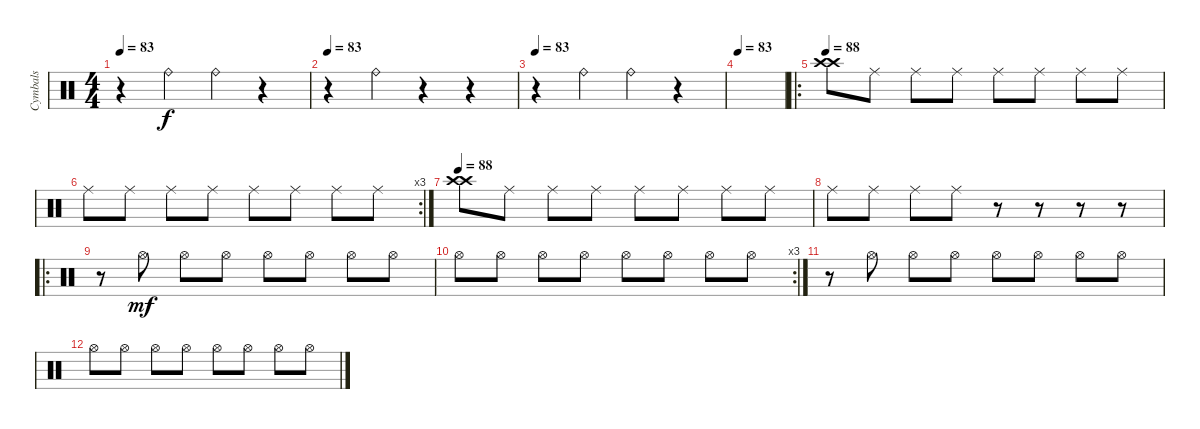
\track ("Cymbals" "Cymbals") {instrument percussion}
\staff {score}
\articulation defaults
\ts (4 4)
\tempo 83
\clef neutral
\ks c
r.4{dy f} "Ride (bell)".4 "Ride (bell)".4 r.4 |
\tempo 83
r.4 "Ride (bell)".4 r.4 r.4 |
\tempo 83
r.4 "Ride (bell)".4 "Ride (bell)".4 r.4 |
\tempo 83
|
\ro
\tempo 88
("Crash high (hit)" "Crash high (hit)").8 "Ride (middle)".8 "Ride (middle)".8 "Ride (middle)".8 "Ride (middle)".8 "Ride (middle)".8 "Ride (middle)".8 "Ride (middle)".8 |
\rc 3 "Ride (middle)".8 "Ride (middle)".8 "Ride (middle)".8 "Ride (middle)".8 "Ride (middle)".8 "Ride (middle)".8 "Ride (middle)".8 "Ride (middle)".8
|
\tempo 88
("Crash high (hit)" "Crash high (hit)").8 "Ride (middle)".8 "Ride (middle)".8 "Ride (middle)".8 "Ride (middle)".8 "Ride (middle)".8 "Ride (middle)".8 "Ride (middle)".8 |
"Ride (middle)".8 "Ride (middle)".8 "Ride (middle)".8 "Ride (middle)".8 r.8 r.8 r.8 r.8 |
\ro
r.8 "Hi-Hat (open)".8{dy mf} "Hi-Hat (open)".8 "Hi-Hat (open)".8 "Hi-Hat (open)".8 "Hi-Hat (open)".8 "Hi-Hat (open)".8 "Hi-Hat (open)".8 |
\rc 3 "Hi-Hat (open)".8 "Hi-Hat (open)".8 "Hi-Hat (open)".8 "Hi-Hat (open)".8 "Hi-Hat (open)".8 "Hi-Hat (open)".8 "Hi-Hat (open)".8 "Hi-Hat (open)".8
|
r.8 "Hi-Hat (open)".8 "Hi-Hat (open)".8 "Hi-Hat (open)".8 "Hi-Hat (open)".8 "Hi-Hat (open)".8 "Hi-Hat (open)".8 "Hi-Hat (open)".8 |
"Hi-Hat (open)".8 "Hi-Hat (open)".8 "Hi-Hat (open)".8 "Hi-Hat (open)".8 "Hi-Hat (open)".8 "Hi-Hat (open)".8 "Hi-Hat (open)".8 "Hi-Hat (open)".8
